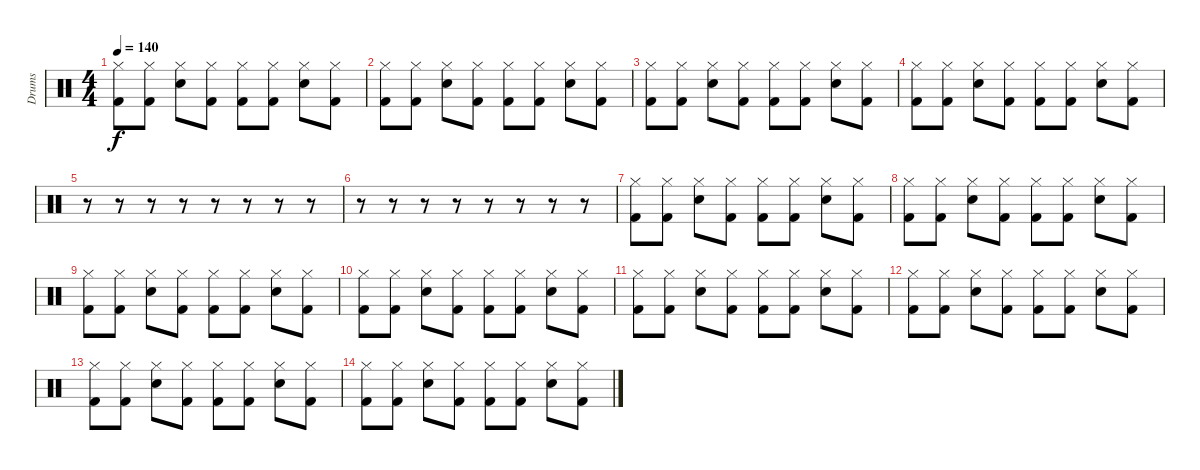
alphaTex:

\track ("Drums" "Drums") {instrument percussion}
\staff {score}
\articulation defaults
\ts (4 4)
\tempo 140
\clef neutral
\ks c
("Hi-Hat (closed)" "Kick (hit) 2").8{dy f} ("Hi-Hat (closed)" "Kick (hit) 2").8 ("Hi-Hat (closed)" "Electric Snare (hit)").8 ("Hi-Hat (closed)" "Kick (hit) 2").8 ("Hi-Hat (closed)" "Kick (hit) 2").8 ("Hi-Hat (closed)" "Kick (hit) 2").8 ("Hi-Hat (closed)" "Electric Snare (hit)").8 ("Hi-Hat (closed)" "Kick (hit) 2").8 |
("Hi-Hat (closed)" "Kick (hit) 2").8 ("Hi-Hat (closed)" "Kick (hit) 2").8 ("Hi-Hat (closed)" "Electric Snare (hit)").8 ("Hi-Hat (closed)" "Kick (hit) 2").8 ("Hi-Hat (closed)" "Kick (hit) 2").8 ("Hi-Hat (closed)" "Kick (hit) 2").8 ("Hi-Hat (closed)" "Electric Snare (hit)").8 ("Hi-Hat (closed)" "Kick (hit) 2").8 |
("Hi-Hat (closed)" "Kick (hit) 2").8 ("Hi-Hat (closed)" "Kick (hit) 2").8 ("Hi-Hat (closed)" "Electric Snare (hit)").8 ("Hi-Hat (closed)" "Kick (hit) 2").8 ("Hi-Hat (closed)" "Kick (hit) 2").8 ("Hi-Hat (closed)" "Kick (hit) 2").8 ("Hi-Hat (closed)" "Electric Snare (hit)").8 ("Hi-Hat (closed)" "Kick (hit) 2").8 |
("Hi-Hat (closed)" "Kick (hit) 2").8 ("Hi-Hat (closed)" "Kick (hit) 2").8 ("Hi-Hat (closed)" "Electric Snare (hit)").8 ("Hi-Hat (closed)" "Kick (hit) 2").8 ("Hi-Hat (closed)" "Kick (hit) 2").8 ("Hi-Hat (closed)" "Kick (hit) 2").8 ("Hi-Hat (closed)" "Electric Snare (hit)").8 ("Hi-Hat (closed)" "Kick (hit) 2").8 |
r.8 r.8 r.8 r.8 r.8 r.8 r.8 r.8 |
r.8 r.8 r.8 r.8 r.8 r.8 r.8 r.8 |
("Hi-Hat (closed)" "Kick (hit) 2").8 ("Hi-Hat (closed)" "Kick (hit) 2").8 ("Hi-Hat (closed)" "Electric Snare (hit)").8 ("Hi-Hat (closed)" "Kick (hit) 2").8 ("Hi-Hat (closed)" "Kick (hit) 2").8 ("Hi-Hat (closed)" "Kick (hit) 2").8 ("Hi-Hat (closed)" "Electric Snare (hit)").8 ("Hi-Hat (closed)" "Kick (hit) 2").8 |
("Hi-Hat (closed)" "Kick (hit) 2").8 ("Hi-Hat (closed)" "Kick (hit) 2").8 ("Hi-Hat (closed)" "Electric Snare (hit)").8 ("Hi-Hat (closed)" "Kick (hit) 2").8 ("Hi-Hat (closed)" "Kick (hit) 2").8 ("Hi-Hat (closed)" "Kick (hit) 2").8 ("Hi-Hat (closed)" "Electric Snare (hit)").8 ("Hi-Hat (closed)" "Kick (hit) 2").8 |
("Hi-Hat (closed)" "Kick (hit) 2").8 ("Hi-Hat (closed)" "Kick (hit) 2").8 ("Hi-Hat (closed)" "Electric Snare (hit)").8 ("Hi-Hat (closed)" "Kick (hit) 2").8 ("Hi-Hat (closed)" "Kick (hit) 2").8 ("Hi-Hat (closed)" "Kick (hit) 2").8 ("Hi-Hat (closed)" "Electric Snare (hit)").8 ("Hi-Hat (closed)" "Kick (hit) 2").8 |
("Hi-Hat (closed)" "Kick (hit) 2").8 ("Hi-Hat (closed)" "Kick (hit) 2").8 ("Hi-Hat (closed)" "Electric Snare (hit)").8 ("Hi-Hat (closed)" "Kick (hit) 2").8 ("Hi-Hat (closed)" "Kick (hit) 2").8 ("Hi-Hat (closed)" "Kick (hit) 2").8 ("Hi-Hat (closed)" "Electric Snare (hit)").8 ("Hi-Hat (closed)" "Kick (hit) 2").8 |
("Hi-Hat (closed)" "Kick (hit) 2").8 ("Hi-Hat (closed)" "Kick (hit) 2").8 ("Hi-Hat (closed)" "Electric Snare (hit)").8 ("Hi-Hat (closed)" "Kick (hit) 2").8 ("Hi-Hat (closed)" "Kick (hit) 2").8 ("Hi-Hat (closed)" "Kick (hit) 2").8 ("Hi-Hat (closed)" "Electric Snare (hit)").8 ("Hi-Hat (closed)" "Kick (hit) 2").8 |
("Hi-Hat (closed)" "Kick (hit) 2").8 ("Hi-Hat (closed)" "Kick (hit) 2").8 ("Hi-Hat (closed)" "Electric Snare (hit)").8 ("Hi-Hat (closed)" "Kick (hit) 2").8 ("Hi-Hat (closed)" "Kick (hit) 2").8 ("Hi-Hat (closed)" "Kick (hit) 2").8 ("Hi-Hat (closed)" "Electric Snare (hit)").8 ("Hi-Hat (closed)" "Kick (hit) 2").8 |
("Hi-Hat (closed)" "Kick (hit) 2").8 ("Hi-Hat (closed)" "Kick (hit) 2").8 ("Hi-Hat (closed)" "Electric Snare (hit)").8 ("Hi-Hat (closed)" "Kick (hit) 2").8 ("Hi-Hat (closed)" "Kick (hit) 2").8 ("Hi-Hat (closed)" "Kick (hit) 2").8 ("Hi-Hat (closed)" "Electric Snare (hit)").8 ("Hi-Hat (closed)" "Kick (hit) 2").8 |
("Hi-Hat (closed)" "Kick (hit) 2").8 ("Hi-Hat (closed)" "Kick (hit) 2").8 ("Hi-Hat (closed)" "Electric Snare (hit)").8 ("Hi-Hat (closed)" "Kick (hit) 2").8 ("Hi-Hat (closed)" "Kick (hit) 2").8 ("Hi-Hat (closed)" "Kick (hit) 2").8 ("Hi-Hat (closed)" "Electric Snare (hit)").8 ("Hi-Hat (closed)" "Kick (hit) 2").8
